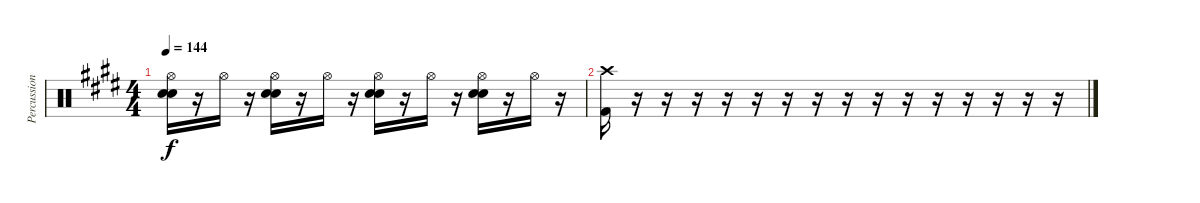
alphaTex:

\track ("Percussion" "Percussion") {instrument percussion}
\staff {score}
\articulation defaults
\ts (4 4)
\tempo 144
\clef neutral
\ks e
("Hi-Hat (open)" "Electric Snare (hit)" "Snare (hit) 2").16{dy f} r.16 "Hi-Hat (open)".16 r.16 ("Hi-Hat (open)" "Electric Snare (hit)" "Snare (hit) 2").16 r.16 "Hi-Hat (open)".16 r.16 ("Hi-Hat (open)" "Electric Snare (hit)" "Snare (hit) 2").16 r.16 "Hi-Hat (open)".16 r.16 ("Hi-Hat (open)" "Electric Snare (hit)" "Snare (hit) 2").16 r.16 "Hi-Hat (open)".16 r.16 |
("Crash high (hit)" "Kick (hit) 2").16 r.16 r.16 r.16 r.16 r.16 r.16 r.16 r.16 r.16 r.16 r.16 r.16 r.16 r.16 r.16
